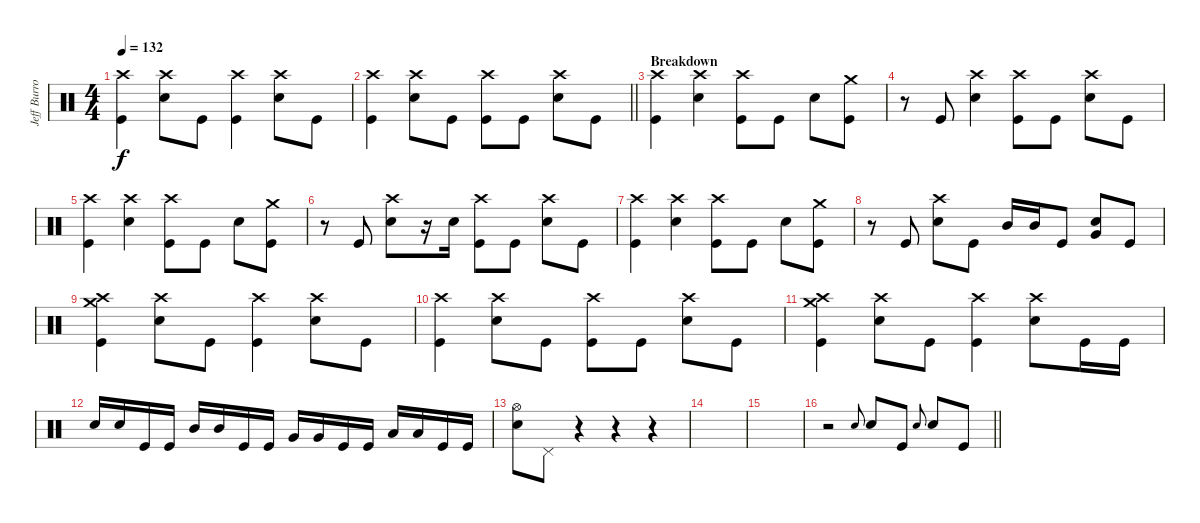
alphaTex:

\track ("Jeff Burrows (Percussion)" "Jeff Burro") {instrument percussion}
\staff {score}
\articulation defaults
\ts (4 4)
\tempo 132
\clef neutral
\ks c
("Crash high (hit)" "Kick (hit)").4{dy f} ("Crash high (hit)" "Snare (hit) 2").8 "Kick (hit)".8 ("Crash high (hit)" "Kick (hit)").4 ("Crash high (hit)" "Snare (hit) 2").8 "Kick (hit)".8 |
\barLineRight lightlight
("Crash high (hit)" "Kick (hit)").4 ("Crash high (hit)" "Snare (hit) 2").8 "Kick (hit)".8 ("Crash high (hit)" "Kick (hit)").8 "Kick (hit)".8 ("Crash high (hit)" "Snare (hit) 2").8 "Kick (hit)".8 |
\section ("" "Breakdown")
("Crash high (hit)" "Kick (hit)").4 ("Crash high (hit)" "Snare (hit) 2").4 ("Crash high (hit)" "Kick (hit)").8 "Kick (hit)".8 "Snare (hit) 2".8 ("Crash medium (hit)" "Kick (hit)").8 |
r.8 "Kick (hit)".8 ("Crash high (hit)" "Snare (hit) 2").4 ("Crash high (hit)" "Kick (hit)").8 "Kick (hit)".8 ("Crash high (hit)" "Snare (hit) 2").8 "Kick (hit)".8 |
("Crash high (hit)" "Kick (hit)").4 ("Crash high (hit)" "Snare (hit) 2").4 ("Crash high (hit)" "Kick (hit)").8 "Kick (hit)".8 "Snare (hit) 2".8 ("Crash medium (hit)" "Kick (hit)").8 |
r.8 "Kick (hit)".8 ("Crash high (hit)" "Snare (hit) 2").8 r.16 "Snare (hit) 2".16 ("Crash high (hit)" "Kick (hit)").8 "Kick (hit)".8 ("Crash high (hit)" "Snare (hit) 2").8 "Kick (hit)".8 |
("Crash high (hit)" "Kick (hit)").4 ("Crash high (hit)" "Snare (hit) 2").4 ("Crash high (hit)" "Kick (hit)").8 "Kick (hit)".8 "Snare (hit) 2".8 ("Crash medium (hit)" "Kick (hit)").8 |
r.8 "Kick (hit)".8 ("Crash high (hit)" "Snare (hit) 2").8 "Kick (hit)".8 "Mid Tom (hit)".16 "Mid Tom (hit)".16 "Kick (hit)".8 ("Very Low Tom (hit)" "Snare (hit) 2").8 "Kick (hit)".8 |
("Crash medium (hit)" "Crash high (hit)" "Kick (hit)").4 ("Crash high (hit)" "Snare (hit) 2").8 "Kick (hit)".8 ("Crash high (hit)" "Kick (hit)").4 ("Crash high (hit)" "Snare (hit) 2").8 "Kick (hit)".8 |
("Crash high (hit)" "Kick (hit)").4 ("Crash high (hit)" "Snare (hit) 2").8 "Kick (hit)".8 ("Crash high (hit)" "Kick (hit)").8 "Kick (hit)".8 ("Crash high (hit)" "Snare (hit) 2").8 "Kick (hit)".8 |
("Crash medium (hit)" "Crash high (hit)" "Kick (hit)").4 ("Crash high (hit)" "Snare (hit) 2").8 "Kick (hit)".8 ("Crash high (hit)" "Kick (hit)").4 ("Crash high (hit)" "Snare (hit) 2").8 "Kick (hit)".16 "Kick (hit)".16 |
"Snare (hit) 2".16 "Snare (hit) 2".16 "Kick (hit)".16 "Kick (hit)".16 "Mid Tom (hit)".16 "Mid Tom (hit)".16 "Kick (hit)".16 "Kick (hit)".16 "Very Low Tom (hit)".16 "Very Low Tom (hit)".16 "Kick (hit)".16 "Kick (hit)".16 "Low Floor Tom (hit)".16 "Low Floor Tom (hit)".16 "Kick (hit)".16 "Kick (hit)".16 |
("Hi-Hat (open)" "Snare (hit) 2").8 "Pedal Hi-Hat (hit)".8 r.4 r.4 r.4 |
|
|
\barLineRight lightlight
r.2 "Snare (hit) 2".8{gr onbeat} "Snare (hit) 2".8 "Kick (hit)".8 "Snare (hit) 2".8{gr onbeat} "Snare (hit) 2".8 "Kick (hit)".8
